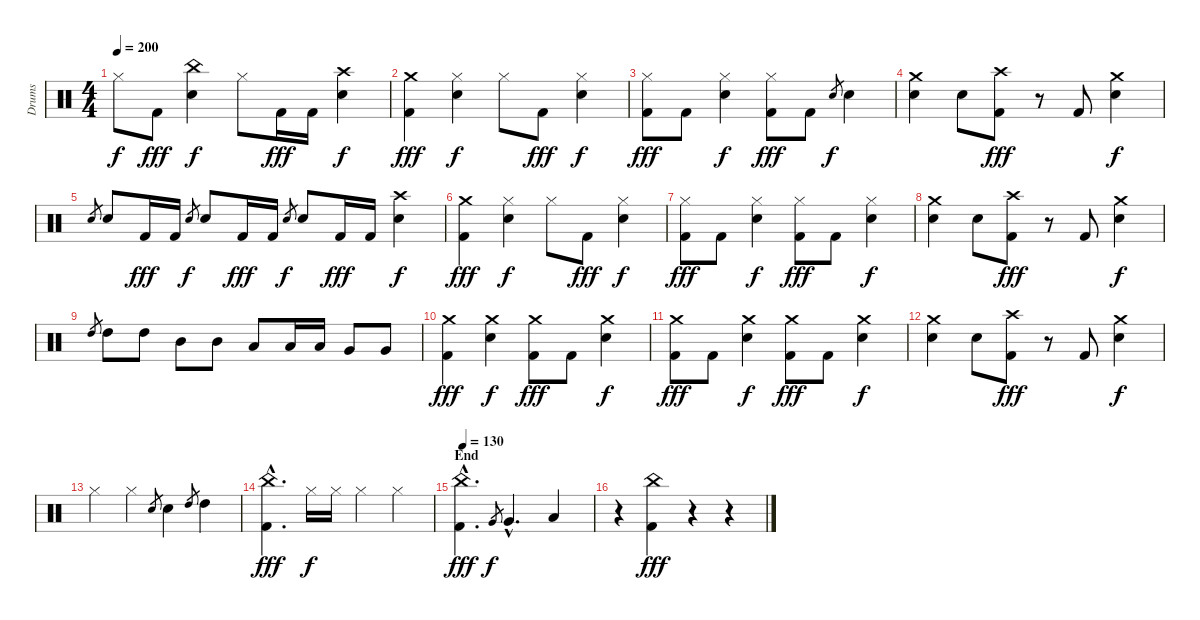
\track ("Drums" "Drums") {instrument percussion}
\staff {score}
\articulation defaults
\ts (4 4)
\tempo 200
\clef neutral
\ks c "Hi-Hat (closed)".8{dy f} "Kick (hit) 2".8{dy fff}
("China (hit)" "Snare (hit) 2").4{dy f} "Hi-Hat (closed)".8 "Kick (hit) 2".16{dy fff} "Kick (hit) 2".16 ("Crash high (hit)" "Snare (hit) 2").4{dy f} |
("Crash medium (hit)" "Kick (hit) 2").4{dy fff} ("Hi-Hat (closed)" "Snare (hit) 2").4{dy f} "Hi-Hat (closed)".8 "Kick (hit) 2".8{dy fff} ("Hi-Hat (closed)" "Snare (hit) 2").4{dy f} |
("Hi-Hat (closed)" "Kick (hit) 2").8{dy fff} "Kick (hit) 2".8 ("Hi-Hat (closed)" "Snare (hit) 2").4{dy f} ("Hi-Hat (closed)" "Kick (hit) 2").8{dy fff} "Kick (hit) 2".8 "Snare (hit) 2".8{gr dy f} "Snare (hit) 2".4 |
("Crash medium (hit)" "Snare (hit) 2").4 "Snare (hit) 2".8 ("Crash high (hit)" "Kick (hit) 2").8{dy fff} r.8 "Kick (hit) 2".8 ("Crash medium (hit)" "Snare (hit) 2").4{dy f} |
"Snare (hit) 2".8{gr} "Snare (hit) 2".8 "Kick (hit) 2".16{dy fff} "Kick (hit) 2".16 "Snare (hit) 2".8{gr dy f} "Snare (hit) 2".8 "Kick (hit) 2".16{dy fff} "Kick (hit) 2".16 "Snare (hit) 2".8{gr dy f} "Snare (hit) 2".8 "Kick (hit) 2".16{dy fff} "Kick (hit) 2".16 ("Crash high (hit)" "Snare (hit) 2").4{dy f} |
("Crash medium (hit)" "Kick (hit) 2").4{dy fff} ("Hi-Hat (closed)" "Snare (hit) 2").4{dy f} "Hi-Hat (closed)".8 "Kick (hit) 2".8{dy fff} ("Hi-Hat (closed)" "Snare (hit) 2").4{dy f} |
("Hi-Hat (closed)" "Kick (hit) 2").8{dy fff} "Kick (hit) 2".8 ("Hi-Hat (closed)" "Snare (hit) 2").4{dy f} ("Hi-Hat (closed)" "Kick (hit) 2").8{dy fff} "Kick (hit) 2".8 ("Hi-Hat (closed)" "Snare (hit) 2").4{dy f} |
("Crash medium (hit)" "Snare (hit) 2").4 "Snare (hit) 2".8 ("Crash high (hit)" "Kick (hit) 2").8{dy fff} r.8 "Kick (hit) 2".8 ("Crash medium (hit)" "Snare (hit) 2").4{dy f} |
"High Tom (hit)".8{gr} "High Tom (hit)".8 "High Tom (hit)".8 "Mid Tom (hit)".8 "Mid Tom (hit)".8 "Low Tom (hit)".8 "Low Tom (hit)".16 "Low Tom (hit)".16 "Very Low Tom (hit)".8 "Very Low Tom (hit)".8 |
("Crash medium (hit)" "Kick (hit) 2").4{dy fff} ("Crash medium (hit)" "Snare (hit) 2").4{dy f} ("Crash medium (hit)" "Kick (hit) 2").8{dy fff} "Kick (hit) 2".8 ("Crash medium (hit)" "Snare (hit) 2").4{dy f} |
("Crash medium (hit)" "Kick (hit) 2").8{dy fff} "Kick (hit) 2".8 ("Crash medium (hit)" "Snare (hit) 2").4{dy f} ("Crash medium (hit)" "Kick (hit) 2").8{dy fff} "Kick (hit) 2".8 ("Crash medium (hit)" "Snare (hit) 2").4{dy f} |
("Crash medium (hit)" "Snare (hit) 2").4 "Snare (hit) 2".8 ("Crash high (hit)" "Kick (hit) 2").8{dy fff} r.8 "Kick (hit) 2".8 ("Crash medium (hit)" "Snare (hit) 2").4{dy f} |
"Hi-Hat (closed)".4 "Hi-Hat (closed)".4 "Snare (hit) 2".8{gr} "Snare (hit) 2".4 "High Tom (hit)".8{gr} "High Tom (hit)".4 |
("China (hit)"{hac} "Kick (hit) 2"{hac}).4{d dy fff} "Hi-Hat (closed)".16{dy f} "Hi-Hat (closed)".16 "Hi-Hat (closed)".4 "Hi-Hat (closed)".4 |
\section ("" "End")
\tempo 130
("China (hit)"{hac} "Kick (hit) 2"{hac}).4{d dy fff} "Very Low Tom (hit)".8{gr dy f} "Very Low Tom (hit)"{hac}.4{d} "Low Floor Tom (hit)".4 |
r.4 ("China (hit)" "Kick (hit) 2").4{dy fff} r.4 r.4
